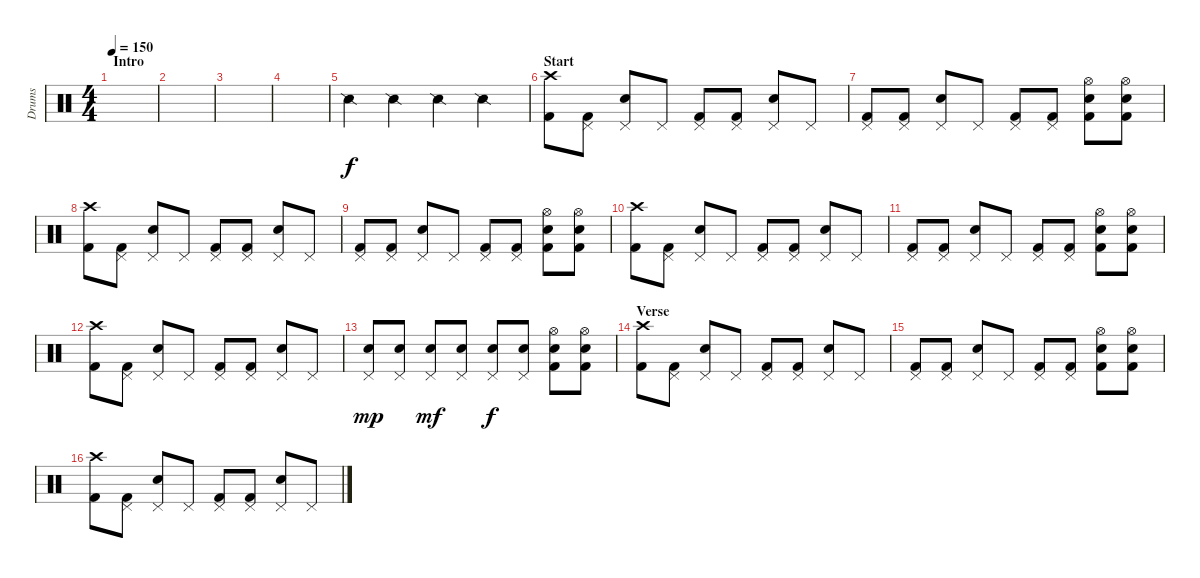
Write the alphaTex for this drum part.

\track ("Drums" "Drums") {instrument percussion}
\staff {score}
\articulation defaults
\ts (4 4)
\section ("" "Intro")
\tempo 150
\clef neutral
\ks c
|
|
|
|
"Snare (side stick) 2".4 "Snare (side stick) 2".4 "Snare (side stick) 2".4 "Snare (side stick) 2".4 |
\section ("" "Start")
("Kick (hit) 2" "Crash high (hit)").8 ("Kick (hit) 2" "Pedal Hi-Hat (hit)").8 ("Snare (hit) 2" "Pedal Hi-Hat (hit)").8 "Pedal Hi-Hat (hit)".8 ("Kick (hit) 2" "Pedal Hi-Hat (hit)").8 ("Kick (hit) 2" "Pedal Hi-Hat (hit)").8 ("Snare (hit) 2" "Pedal Hi-Hat (hit)").8 "Pedal Hi-Hat (hit)".8 |
("Kick (hit) 2" "Pedal Hi-Hat (hit)").8 ("Kick (hit) 2" "Pedal Hi-Hat (hit)").8 ("Snare (hit) 2" "Pedal Hi-Hat (hit)").8 "Pedal Hi-Hat (hit)".8 ("Kick (hit) 2" "Pedal Hi-Hat (hit)").8 ("Kick (hit) 2" "Pedal Hi-Hat (hit)").8 ("Hi-Hat (open)" "Snare (hit) 2" "Kick (hit) 2").8 ("Hi-Hat (open)" "Snare (hit) 2" "Kick (hit) 2").8 |
("Kick (hit) 2" "Crash high (hit)").8 ("Kick (hit) 2" "Pedal Hi-Hat (hit)").8 ("Snare (hit) 2" "Pedal Hi-Hat (hit)").8 "Pedal Hi-Hat (hit)".8 ("Kick (hit) 2" "Pedal Hi-Hat (hit)").8 ("Kick (hit) 2" "Pedal Hi-Hat (hit)").8 ("Snare (hit) 2" "Pedal Hi-Hat (hit)").8 "Pedal Hi-Hat (hit)".8 |
("Kick (hit) 2" "Pedal Hi-Hat (hit)").8 ("Kick (hit) 2" "Pedal Hi-Hat (hit)").8 ("Snare (hit) 2" "Pedal Hi-Hat (hit)").8 "Pedal Hi-Hat (hit)".8 ("Kick (hit) 2" "Pedal Hi-Hat (hit)").8 ("Kick (hit) 2" "Pedal Hi-Hat (hit)").8 ("Hi-Hat (open)" "Snare (hit) 2" "Kick (hit) 2").8 ("Hi-Hat (open)" "Snare (hit) 2" "Kick (hit) 2").8 |
("Kick (hit) 2" "Crash high (hit)").8 ("Kick (hit) 2" "Pedal Hi-Hat (hit)").8 ("Snare (hit) 2" "Pedal Hi-Hat (hit)").8 "Pedal Hi-Hat (hit)".8 ("Kick (hit) 2" "Pedal Hi-Hat (hit)").8 ("Kick (hit) 2" "Pedal Hi-Hat (hit)").8 ("Snare (hit) 2" "Pedal Hi-Hat (hit)").8 "Pedal Hi-Hat (hit)".8 |
("Kick (hit) 2" "Pedal Hi-Hat (hit)").8 ("Kick (hit) 2" "Pedal Hi-Hat (hit)").8 ("Snare (hit) 2" "Pedal Hi-Hat (hit)").8 "Pedal Hi-Hat (hit)".8 ("Kick (hit) 2" "Pedal Hi-Hat (hit)").8 ("Kick (hit) 2" "Pedal Hi-Hat (hit)").8 ("Hi-Hat (open)" "Snare (hit) 2" "Kick (hit) 2").8 ("Hi-Hat (open)" "Snare (hit) 2" "Kick (hit) 2").8 |
("Kick (hit) 2" "Crash high (hit)").8 ("Kick (hit) 2" "Pedal Hi-Hat (hit)").8 ("Snare (hit) 2" "Pedal Hi-Hat (hit)").8 "Pedal Hi-Hat (hit)".8 ("Kick (hit) 2" "Pedal Hi-Hat (hit)").8 ("Kick (hit) 2" "Pedal Hi-Hat (hit)").8 ("Snare (hit) 2" "Pedal Hi-Hat (hit)").8 "Pedal Hi-Hat (hit)".8 |
("Snare (hit) 2" "Pedal Hi-Hat (hit)").8{dy mp} ("Snare (hit) 2" "Pedal Hi-Hat (hit)").8 ("Snare (hit) 2" "Pedal Hi-Hat (hit)").8{dy mf} ("Snare (hit) 2" "Pedal Hi-Hat (hit)").8 ("Snare (hit) 2" "Pedal Hi-Hat (hit)").8{dy f} ("Snare (hit) 2" "Pedal Hi-Hat (hit)").8 ("Snare (hit) 2" "Kick (hit) 2" "Hi-Hat (open)").8 ("Snare (hit) 2" "Kick (hit) 2" "Hi-Hat (open)").8 |
\section ("" "Verse")
("Kick (hit) 2" "Crash high (hit)").8 ("Kick (hit) 2" "Pedal Hi-Hat (hit)").8 ("Snare (hit) 2" "Pedal Hi-Hat (hit)").8 "Pedal Hi-Hat (hit)".8 ("Kick (hit) 2" "Pedal Hi-Hat (hit)").8 ("Kick (hit) 2" "Pedal Hi-Hat (hit)").8 ("Snare (hit) 2" "Pedal Hi-Hat (hit)").8 "Pedal Hi-Hat (hit)".8 |
("Kick (hit) 2" "Pedal Hi-Hat (hit)").8 ("Kick (hit) 2" "Pedal Hi-Hat (hit)").8 ("Snare (hit) 2" "Pedal Hi-Hat (hit)").8 "Pedal Hi-Hat (hit)".8 ("Kick (hit) 2" "Pedal Hi-Hat (hit)").8 ("Kick (hit) 2" "Pedal Hi-Hat (hit)").8 ("Hi-Hat (open)" "Snare (hit) 2" "Kick (hit) 2").8 ("Hi-Hat (open)" "Snare (hit) 2" "Kick (hit) 2").8 |
("Kick (hit) 2" "Crash high (hit)").8 ("Kick (hit) 2" "Pedal Hi-Hat (hit)").8 ("Snare (hit) 2" "Pedal Hi-Hat (hit)").8 "Pedal Hi-Hat (hit)".8 ("Kick (hit) 2" "Pedal Hi-Hat (hit)").8 ("Kick (hit) 2" "Pedal Hi-Hat (hit)").8 ("Snare (hit) 2" "Pedal Hi-Hat (hit)").8 "Pedal Hi-Hat (hit)".8
